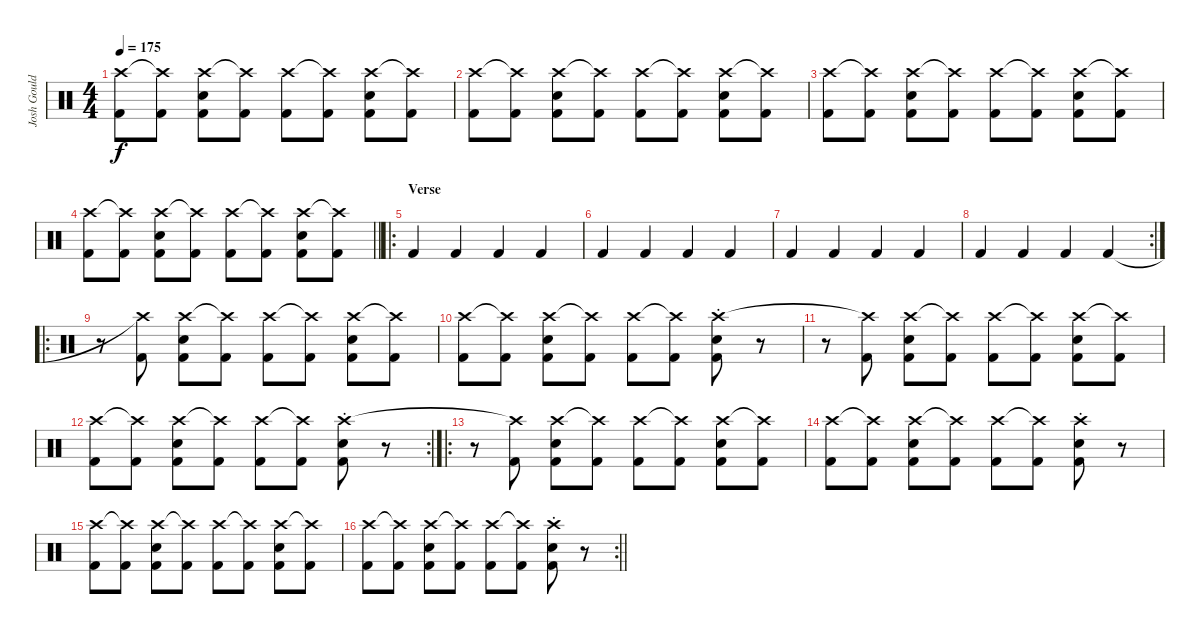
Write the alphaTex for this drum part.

\track ("Josh Gould - Drums" "Josh Gould") {instrument percussion}
\staff {score}
\articulation defaults
\ts (4 4)
\tempo 175
\clef neutral
\ks c
("Crash high (hit)" "Kick (hit) 2").8{dy f} ("Crash high (hit)"{t} "Kick (hit) 2").8 ("Crash high (hit)" "Snare (hit) 2" "Kick (hit) 2").8 ("Crash high (hit)"{t} "Kick (hit) 2").8 ("Crash high (hit)" "Kick (hit) 2").8 ("Crash high (hit)"{t} "Kick (hit) 2").8 ("Crash high (hit)" "Snare (hit) 2" "Kick (hit) 2").8 ("Crash high (hit)"{t} "Kick (hit) 2").8 |
("Crash high (hit)" "Kick (hit) 2").8 ("Crash high (hit)"{t} "Kick (hit) 2").8 ("Crash high (hit)" "Snare (hit) 2" "Kick (hit) 2").8 ("Crash high (hit)"{t} "Kick (hit) 2").8 ("Crash high (hit)" "Kick (hit) 2").8 ("Crash high (hit)"{t} "Kick (hit) 2").8 ("Crash high (hit)" "Snare (hit) 2" "Kick (hit) 2").8 ("Crash high (hit)"{t} "Kick (hit) 2").8 |
("Crash high (hit)" "Kick (hit) 2").8 ("Crash high (hit)"{t} "Kick (hit) 2").8 ("Crash high (hit)" "Snare (hit) 2" "Kick (hit) 2").8 ("Crash high (hit)"{t} "Kick (hit) 2").8 ("Crash high (hit)" "Kick (hit) 2").8 ("Crash high (hit)"{t} "Kick (hit) 2").8 ("Crash high (hit)" "Snare (hit) 2" "Kick (hit) 2").8 ("Crash high (hit)"{t} "Kick (hit) 2").8 |
\barLineRight lightlight
("Crash high (hit)" "Kick (hit) 2").8 ("Crash high (hit)"{t} "Kick (hit) 2").8 ("Crash high (hit)" "Snare (hit) 2" "Kick (hit) 2").8 ("Crash high (hit)"{t} "Kick (hit) 2").8 ("Crash high (hit)" "Kick (hit) 2").8 ("Crash high (hit)"{t} "Kick (hit) 2").8 ("Crash high (hit)" "Snare (hit) 2" "Kick (hit) 2").8 ("Crash high (hit)"{t} "Kick (hit) 2").8 |
\ro
\section ("" "Verse")
"Kick (hit) 2".4 "Kick (hit) 2".4 "Kick (hit) 2".4 "Kick (hit) 2".4 |
"Kick (hit) 2".4 "Kick (hit) 2".4 "Kick (hit) 2".4 "Kick (hit) 2".4 |
"Kick (hit) 2".4 "Kick (hit) 2".4 "Kick (hit) 2".4 "Kick (hit) 2".4 |
\rc 2 "Kick (hit) 2".4 "Kick (hit) 2".4 "Kick (hit) 2".4 "Kick (hit) 2".4
|
\ro
r.8 ("Crash high (hit)"{t} "Kick (hit) 2").8{volume 15} ("Crash high (hit)" "Snare (hit) 2" "Kick (hit) 2").8 ("Crash high (hit)"{t} "Kick (hit) 2").8 ("Crash high (hit)" "Kick (hit) 2").8 ("Crash high (hit)"{t} "Kick (hit) 2").8 ("Crash high (hit)" "Snare (hit) 2" "Kick (hit) 2").8 ("Crash high (hit)"{t} "Kick (hit) 2").8 |
("Crash high (hit)" "Kick (hit) 2").8 ("Crash high (hit)"{t} "Kick (hit) 2").8 ("Crash high (hit)" "Snare (hit) 2" "Kick (hit) 2").8 ("Crash high (hit)"{t} "Kick (hit) 2").8 ("Crash high (hit)" "Kick (hit) 2").8 ("Crash high (hit)"{t} "Kick (hit) 2").8 ("Crash high (hit)" "Snare (hit) 2"{st} "Kick (hit) 2"{st}).8 r.8{volume 0} |
r.8 ("Crash high (hit)"{t} "Kick (hit) 2").8{volume 15} ("Crash high (hit)" "Snare (hit) 2" "Kick (hit) 2").8 ("Crash high (hit)"{t} "Kick (hit) 2").8 ("Crash high (hit)" "Kick (hit) 2").8 ("Crash high (hit)"{t} "Kick (hit) 2").8 ("Crash high (hit)" "Snare (hit) 2" "Kick (hit) 2").8 ("Crash high (hit)"{t} "Kick (hit) 2").8 |
\rc 2
("Crash high (hit)" "Kick (hit) 2").8 ("Crash high (hit)"{t} "Kick (hit) 2").8 ("Crash high (hit)" "Snare (hit) 2" "Kick (hit) 2").8 ("Crash high (hit)"{t} "Kick (hit) 2").8 ("Crash high (hit)" "Kick (hit) 2").8 ("Crash high (hit)"{t} "Kick (hit) 2").8 ("Crash high (hit)" "Snare (hit) 2"{st} "Kick (hit) 2"{st}).8 r.8{volume 0} |
\ro
r.8 ("Crash high (hit)"{t} "Kick (hit) 2").8{volume 15} ("Crash high (hit)" "Snare (hit) 2" "Kick (hit) 2").8 ("Crash high (hit)"{t} "Kick (hit) 2").8 ("Crash high (hit)" "Kick (hit) 2").8 ("Crash high (hit)"{t} "Kick (hit) 2").8 ("Crash high (hit)" "Snare (hit) 2" "Kick (hit) 2").8 ("Crash high (hit)"{t} "Kick (hit) 2").8 |
("Crash high (hit)" "Kick (hit) 2").8 ("Crash high (hit)"{t} "Kick (hit) 2").8 ("Crash high (hit)" "Snare (hit) 2" "Kick (hit) 2").8 ("Crash high (hit)"{t} "Kick (hit) 2").8 ("Crash high (hit)" "Kick (hit) 2").8 ("Crash high (hit)"{t} "Kick (hit) 2").8 ("Crash high (hit)" "Snare (hit) 2"{st} "Kick (hit) 2"{st}).8 r.8{volume 0} |
("Crash high (hit)" "Kick (hit) 2").8 ("Crash high (hit)"{t} "Kick (hit) 2").8{volume 15} ("Crash high (hit)" "Snare (hit) 2" "Kick (hit) 2").8 ("Crash high (hit)"{t} "Kick (hit) 2").8 ("Crash high (hit)" "Kick (hit) 2").8 ("Crash high (hit)"{t} "Kick (hit) 2").8 ("Crash high (hit)" "Snare (hit) 2" "Kick (hit) 2").8 ("Crash high (hit)"{t} "Kick (hit) 2").8 |
\rc 2
\barLineRight lightlight
("Crash high (hit)" "Kick (hit) 2").8 ("Crash high (hit)"{t} "Kick (hit) 2").8 ("Crash high (hit)" "Snare (hit) 2" "Kick (hit) 2").8 ("Crash high (hit)"{t} "Kick (hit) 2").8 ("Crash high (hit)" "Kick (hit) 2").8 ("Crash high (hit)"{t} "Kick (hit) 2").8 ("Crash high (hit)" "Snare (hit) 2"{st} "Kick (hit) 2"{st}).8 r.8{volume 0}
